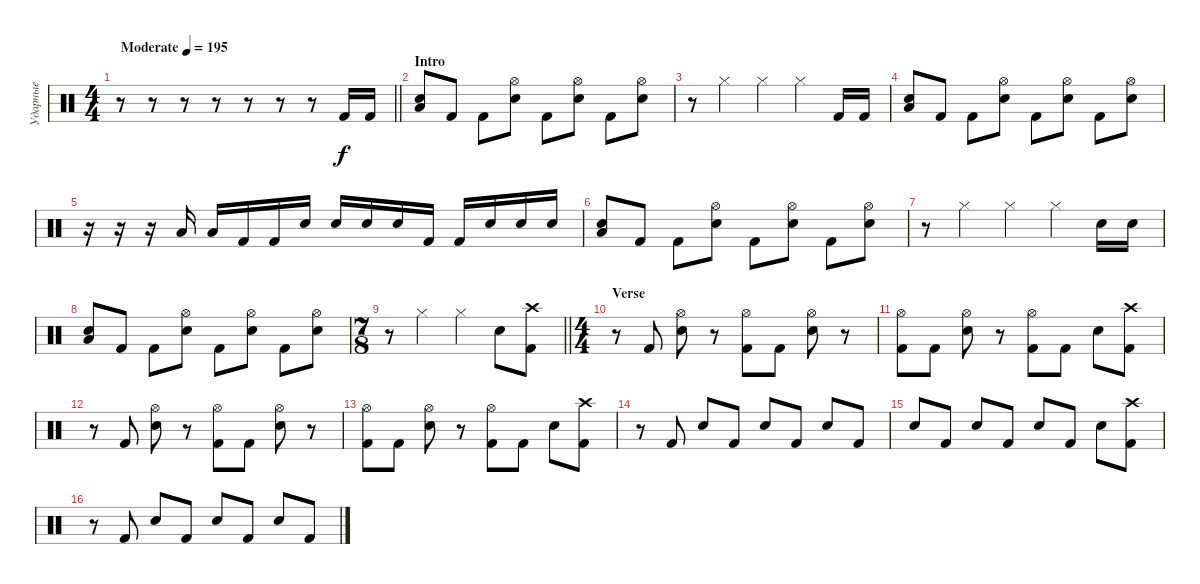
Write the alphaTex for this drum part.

\track ("Ударные" "Ударные") {instrument percussion}
\staff {score}
\articulation defaults
\ts (4 4)
\tempo (195 "Moderate")
\clef neutral
\barLineRight lightlight
\ks c
r.8{dy f} r.8 r.8 r.8 r.8 r.8 r.8 "Kick (hit) 2".16 "Kick (hit) 2".16 |
\section ("" "Intro")
("Low Floor Tom (hit)" "Electric Snare (hit)").8 "Kick (hit) 2".8 "Kick (hit) 2".8 ("Hi-Hat (open)" "Electric Snare (hit)").8 "Kick (hit) 2".8 ("Hi-Hat (open)" "Electric Snare (hit)").8 "Kick (hit) 2".8 ("Hi-Hat (open)" "Electric Snare (hit)").8 |
r.8 "Hi-Hat (closed)".4 "Hi-Hat (closed)".4 "Hi-Hat (closed)".4 "Kick (hit) 2".16 "Kick (hit) 2".16 |
("Low Floor Tom (hit)" "Electric Snare (hit)").8 "Kick (hit) 2".8 "Kick (hit) 2".8 ("Hi-Hat (open)" "Electric Snare (hit)").8 "Kick (hit) 2".8 ("Hi-Hat (open)" "Electric Snare (hit)").8 "Kick (hit) 2".8 ("Hi-Hat (open)" "Electric Snare (hit)").8 |
r.16 r.16 r.16 "Low Floor Tom (hit)".16 "Low Floor Tom (hit)".16 "Kick (hit) 2".16 "Kick (hit) 2".16 "Electric Snare (hit)".16 "Electric Snare (hit)".16 "Electric Snare (hit)".16 "Electric Snare (hit)".16 "Kick (hit) 2".16 "Kick (hit) 2".16 "Electric Snare (hit)".16 "Electric Snare (hit)".16 "Electric Snare (hit)".16 |
("Low Floor Tom (hit)" "Electric Snare (hit)").8 "Kick (hit) 2".8 "Kick (hit) 2".8 ("Hi-Hat (open)" "Electric Snare (hit)").8 "Kick (hit) 2".8 ("Hi-Hat (open)" "Electric Snare (hit)").8 "Kick (hit) 2".8 ("Hi-Hat (open)" "Electric Snare (hit)").8 |
r.8 "Hi-Hat (closed)".4 "Hi-Hat (closed)".4 "Hi-Hat (closed)".4 "Electric Snare (hit)".16 "Electric Snare (hit)".16 |
("Low Floor Tom (hit)" "Electric Snare (hit)").8 "Kick (hit) 2".8 "Kick (hit) 2".8 ("Hi-Hat (open)" "Electric Snare (hit)").8 "Kick (hit) 2".8 ("Hi-Hat (open)" "Electric Snare (hit)").8 "Kick (hit) 2".8 ("Hi-Hat (open)" "Electric Snare (hit)").8 |
\ts (7 8)
\barLineRight lightlight
r.8 "Hi-Hat (closed)".4 "Hi-Hat (closed)".4 "Electric Snare (hit)".8 ("Crash high (hit)" "Kick (hit) 2").8 |
\ts (4 4)
\section ("" "Verse")
r.8 "Kick (hit) 2".8 ("Hi-Hat (open)" "Electric Snare (hit)").8 r.8 ("Hi-Hat (open)" "Kick (hit) 2").8 "Kick (hit) 2".8 ("Hi-Hat (open)" "Electric Snare (hit)").8 r.8 |
("Hi-Hat (open)" "Kick (hit) 2").8 "Kick (hit) 2".8 ("Hi-Hat (open)" "Electric Snare (hit)").8 r.8 ("Hi-Hat (open)" "Kick (hit) 2").8 "Kick (hit) 2".8 "Electric Snare (hit)".8 ("Crash high (hit)" "Kick (hit) 2").8 |
r.8 "Kick (hit) 2".8 ("Hi-Hat (open)" "Electric Snare (hit)").8 r.8 ("Hi-Hat (open)" "Kick (hit) 2").8 "Kick (hit) 2".8 ("Hi-Hat (open)" "Electric Snare (hit)").8 r.8 |
("Hi-Hat (open)" "Kick (hit) 2").8 "Kick (hit) 2".8 ("Hi-Hat (open)" "Electric Snare (hit)").8 r.8 ("Hi-Hat (open)" "Kick (hit) 2").8 "Kick (hit) 2".8 "Electric Snare (hit)".8 ("Crash high (hit)" "Kick (hit) 2").8 |
r.8 "Kick (hit) 2".8 "Snare (hit) 2".8 "Kick (hit) 2".8 "Snare (hit) 2".8 "Kick (hit) 2".8 "Snare (hit) 2".8 "Kick (hit) 2".8 |
"Snare (hit) 2".8 "Kick (hit) 2".8 "Snare (hit) 2".8 "Kick (hit) 2".8 "Snare (hit) 2".8 "Kick (hit) 2".8 "Electric Snare (hit)".8 ("Crash high (hit)" "Kick (hit) 2").8 |
r.8 "Kick (hit) 2".8 "Snare (hit) 2".8 "Kick (hit) 2".8 "Snare (hit) 2".8 "Kick (hit) 2".8 "Snare (hit) 2".8 "Kick (hit) 2".8
